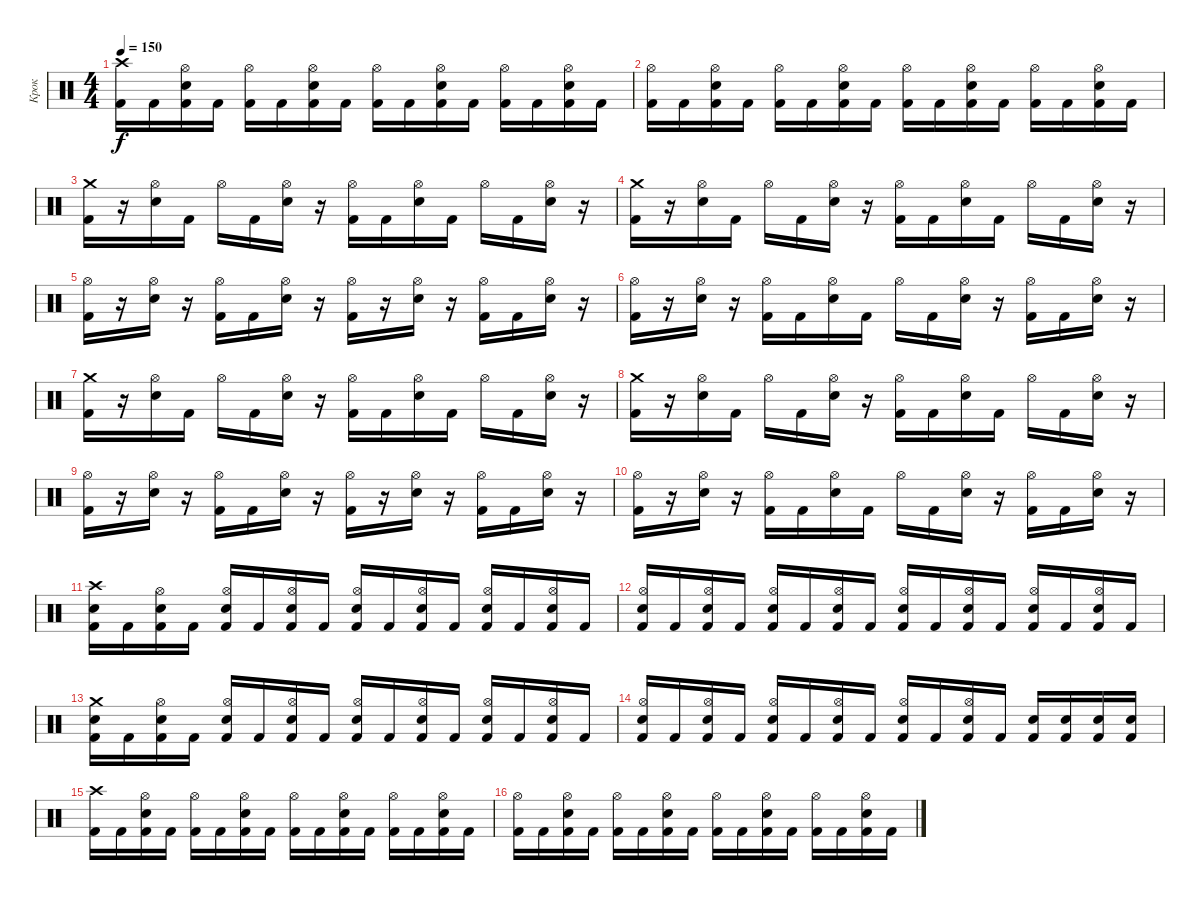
\track ("Крок" "Крок") {instrument percussion}
\staff {score}
\articulation defaults
\ts (4 4)
\tempo 150
\clef neutral
\ks c
("Crash high (hit)" "Kick (hit) 2").16{dy f} "Kick (hit) 2".16 ("Hi-Hat (open)" "Electric Snare (hit)" "Kick (hit) 2").16 "Kick (hit) 2".16 ("Hi-Hat (open)" "Kick (hit) 2").16 "Kick (hit) 2".16 ("Hi-Hat (open)" "Electric Snare (hit)" "Kick (hit) 2").16 "Kick (hit) 2".16 ("Hi-Hat (open)" "Kick (hit) 2").16 "Kick (hit) 2".16 ("Hi-Hat (open)" "Electric Snare (hit)" "Kick (hit) 2").16 "Kick (hit) 2".16 ("Hi-Hat (open)" "Kick (hit) 2").16 "Kick (hit) 2".16 ("Hi-Hat (open)" "Electric Snare (hit)" "Kick (hit) 2").16 "Kick (hit) 2".16 |
("Hi-Hat (open)" "Kick (hit) 2").16 "Kick (hit) 2".16 ("Hi-Hat (open)" "Electric Snare (hit)" "Kick (hit) 2").16 "Kick (hit) 2".16 ("Hi-Hat (open)" "Kick (hit) 2").16 "Kick (hit) 2".16 ("Hi-Hat (open)" "Electric Snare (hit)" "Kick (hit) 2").16 "Kick (hit) 2".16 ("Hi-Hat (open)" "Kick (hit) 2").16 "Kick (hit) 2".16 ("Hi-Hat (open)" "Electric Snare (hit)" "Kick (hit) 2").16 "Kick (hit) 2".16 ("Hi-Hat (open)" "Kick (hit) 2").16 "Kick (hit) 2".16 ("Hi-Hat (open)" "Electric Snare (hit)" "Kick (hit) 2").16 "Kick (hit) 2".16 |
("Crash medium (hit)" "Kick (hit) 2").16 r.16 ("Hi-Hat (open)" "Electric Snare (hit)").16 "Kick (hit) 2".16 "Hi-Hat (open)".16 "Kick (hit) 2".16 ("Hi-Hat (open)" "Electric Snare (hit)").16 r.16 ("Hi-Hat (open)" "Kick (hit) 2").16 "Kick (hit) 2".16 ("Hi-Hat (open)" "Electric Snare (hit)").16 "Kick (hit) 2".16 "Hi-Hat (open)".16 "Kick (hit) 2".16 ("Hi-Hat (open)" "Electric Snare (hit)").16 r.16 |
("Crash medium (hit)" "Kick (hit) 2").16 r.16 ("Hi-Hat (open)" "Electric Snare (hit)").16 "Kick (hit) 2".16 "Hi-Hat (open)".16 "Kick (hit) 2".16 ("Hi-Hat (open)" "Electric Snare (hit)").16 r.16 ("Hi-Hat (open)" "Kick (hit) 2").16 "Kick (hit) 2".16 ("Hi-Hat (open)" "Electric Snare (hit)").16 "Kick (hit) 2".16 "Hi-Hat (open)".16 "Kick (hit) 2".16 ("Hi-Hat (open)" "Electric Snare (hit)").16 r.16 |
("Hi-Hat (open)" "Kick (hit) 2").16 r.16 ("Hi-Hat (open)" "Electric Snare (hit)").16 r.16 ("Hi-Hat (open)" "Kick (hit) 2").16 "Kick (hit) 2".16 ("Hi-Hat (open)" "Electric Snare (hit)").16 r.16 ("Hi-Hat (open)" "Kick (hit) 2").16 r.16 ("Hi-Hat (open)" "Electric Snare (hit)").16 r.16 ("Hi-Hat (open)" "Kick (hit) 2").16 "Kick (hit) 2".16 ("Hi-Hat (open)" "Electric Snare (hit)").16 r.16 |
("Hi-Hat (open)" "Kick (hit) 2").16 r.16 ("Hi-Hat (open)" "Electric Snare (hit)").16 r.16 ("Hi-Hat (open)" "Kick (hit) 2").16 "Kick (hit) 2".16 ("Hi-Hat (open)" "Electric Snare (hit)").16 "Kick (hit) 2".16 "Hi-Hat (open)".16 "Kick (hit) 2".16 ("Hi-Hat (open)" "Electric Snare (hit)").16 r.16 ("Hi-Hat (open)" "Kick (hit) 2").16 "Kick (hit) 2".16 ("Hi-Hat (open)" "Electric Snare (hit)").16 r.16 |
("Crash medium (hit)" "Kick (hit) 2").16 r.16 ("Hi-Hat (open)" "Electric Snare (hit)").16 "Kick (hit) 2".16 "Hi-Hat (open)".16 "Kick (hit) 2".16 ("Hi-Hat (open)" "Electric Snare (hit)").16 r.16 ("Hi-Hat (open)" "Kick (hit) 2").16 "Kick (hit) 2".16 ("Hi-Hat (open)" "Electric Snare (hit)").16 "Kick (hit) 2".16 "Hi-Hat (open)".16 "Kick (hit) 2".16 ("Hi-Hat (open)" "Electric Snare (hit)").16 r.16 |
("Crash medium (hit)" "Kick (hit) 2").16 r.16 ("Hi-Hat (open)" "Electric Snare (hit)").16 "Kick (hit) 2".16 "Hi-Hat (open)".16 "Kick (hit) 2".16 ("Hi-Hat (open)" "Electric Snare (hit)").16 r.16 ("Hi-Hat (open)" "Kick (hit) 2").16 "Kick (hit) 2".16 ("Hi-Hat (open)" "Electric Snare (hit)").16 "Kick (hit) 2".16 "Hi-Hat (open)".16 "Kick (hit) 2".16 ("Hi-Hat (open)" "Electric Snare (hit)").16 r.16 |
("Hi-Hat (open)" "Kick (hit) 2").16 r.16 ("Hi-Hat (open)" "Electric Snare (hit)").16 r.16 ("Hi-Hat (open)" "Kick (hit) 2").16 "Kick (hit) 2".16 ("Hi-Hat (open)" "Electric Snare (hit)").16 r.16 ("Hi-Hat (open)" "Kick (hit) 2").16 r.16 ("Hi-Hat (open)" "Electric Snare (hit)").16 r.16 ("Hi-Hat (open)" "Kick (hit) 2").16 "Kick (hit) 2".16 ("Hi-Hat (open)" "Electric Snare (hit)").16 r.16 |
("Hi-Hat (open)" "Kick (hit) 2").16 r.16 ("Hi-Hat (open)" "Electric Snare (hit)").16 r.16 ("Hi-Hat (open)" "Kick (hit) 2").16 "Kick (hit) 2".16 ("Hi-Hat (open)" "Electric Snare (hit)").16 "Kick (hit) 2".16 "Hi-Hat (open)".16 "Kick (hit) 2".16 ("Hi-Hat (open)" "Electric Snare (hit)").16 r.16 ("Hi-Hat (open)" "Kick (hit) 2").16 "Kick (hit) 2".16 ("Hi-Hat (open)" "Electric Snare (hit)").16 r.16 |
("Electric Snare (hit)" "Crash high (hit)" "Kick (hit) 2").16 "Kick (hit) 2".16 ("Hi-Hat (open)" "Electric Snare (hit)" "Kick (hit) 2").16 "Kick (hit) 2".16 ("Hi-Hat (open)" "Electric Snare (hit)" "Kick (hit) 2").16 "Kick (hit) 2".16 ("Hi-Hat (open)" "Electric Snare (hit)" "Kick (hit) 2").16 "Kick (hit) 2".16 ("Hi-Hat (open)" "Electric Snare (hit)" "Kick (hit) 2").16 "Kick (hit) 2".16 ("Hi-Hat (open)" "Electric Snare (hit)" "Kick (hit) 2").16 "Kick (hit) 2".16 ("Hi-Hat (open)" "Electric Snare (hit)" "Kick (hit) 2").16 "Kick (hit) 2".16 ("Hi-Hat (open)" "Electric Snare (hit)" "Kick (hit) 2").16 "Kick (hit) 2".16 |
("Hi-Hat (open)" "Electric Snare (hit)" "Kick (hit) 2").16 "Kick (hit) 2".16 ("Hi-Hat (open)" "Electric Snare (hit)" "Kick (hit) 2").16 "Kick (hit) 2".16 ("Hi-Hat (open)" "Electric Snare (hit)" "Kick (hit) 2").16 "Kick (hit) 2".16 ("Hi-Hat (open)" "Electric Snare (hit)" "Kick (hit) 2").16 "Kick (hit) 2".16 ("Hi-Hat (open)" "Electric Snare (hit)" "Kick (hit) 2").16 "Kick (hit) 2".16 ("Hi-Hat (open)" "Electric Snare (hit)" "Kick (hit) 2").16 "Kick (hit) 2".16 ("Hi-Hat (open)" "Electric Snare (hit)" "Kick (hit) 2").16 "Kick (hit) 2".16 ("Hi-Hat (open)" "Electric Snare (hit)" "Kick (hit) 2").16 "Kick (hit) 2".16 |
("Crash medium (hit)" "Electric Snare (hit)" "Kick (hit) 2").16 "Kick (hit) 2".16 ("Hi-Hat (open)" "Electric Snare (hit)" "Kick (hit) 2").16 "Kick (hit) 2".16 ("Hi-Hat (open)" "Electric Snare (hit)" "Kick (hit) 2").16 "Kick (hit) 2".16 ("Hi-Hat (open)" "Electric Snare (hit)" "Kick (hit) 2").16 "Kick (hit) 2".16 ("Hi-Hat (open)" "Electric Snare (hit)" "Kick (hit) 2").16 "Kick (hit) 2".16 ("Hi-Hat (open)" "Electric Snare (hit)" "Kick (hit) 2").16 "Kick (hit) 2".16 ("Hi-Hat (open)" "Electric Snare (hit)" "Kick (hit) 2").16 "Kick (hit) 2".16 ("Hi-Hat (open)" "Electric Snare (hit)" "Kick (hit) 2").16 "Kick (hit) 2".16 |
("Hi-Hat (open)" "Electric Snare (hit)" "Kick (hit) 2").16 "Kick (hit) 2".16 ("Hi-Hat (open)" "Electric Snare (hit)" "Kick (hit) 2").16 "Kick (hit) 2".16 ("Hi-Hat (open)" "Electric Snare (hit)" "Kick (hit) 2").16 "Kick (hit) 2".16 ("Hi-Hat (open)" "Electric Snare (hit)" "Kick (hit) 2").16 "Kick (hit) 2".16 ("Hi-Hat (open)" "Electric Snare (hit)" "Kick (hit) 2").16 "Kick (hit) 2".16 ("Hi-Hat (open)" "Electric Snare (hit)" "Kick (hit) 2").16 "Kick (hit) 2".16 ("Electric Snare (hit)" "Kick (hit) 2").16 ("Electric Snare (hit)" "Kick (hit) 2").16 ("Electric Snare (hit)" "Kick (hit) 2").16 ("Electric Snare (hit)" "Kick (hit) 2").16 |
("Crash high (hit)" "Kick (hit) 2").16 "Kick (hit) 2".16 ("Hi-Hat (open)" "Electric Snare (hit)" "Kick (hit) 2").16 "Kick (hit) 2".16 ("Hi-Hat (open)" "Kick (hit) 2").16 "Kick (hit) 2".16 ("Hi-Hat (open)" "Electric Snare (hit)" "Kick (hit) 2").16 "Kick (hit) 2".16 ("Hi-Hat (open)" "Kick (hit) 2").16 "Kick (hit) 2".16 ("Hi-Hat (open)" "Electric Snare (hit)" "Kick (hit) 2").16 "Kick (hit) 2".16 ("Hi-Hat (open)" "Kick (hit) 2").16 "Kick (hit) 2".16 ("Hi-Hat (open)" "Electric Snare (hit)" "Kick (hit) 2").16 "Kick (hit) 2".16 |
("Hi-Hat (open)" "Kick (hit) 2").16 "Kick (hit) 2".16 ("Hi-Hat (open)" "Electric Snare (hit)" "Kick (hit) 2").16 "Kick (hit) 2".16 ("Hi-Hat (open)" "Kick (hit) 2").16 "Kick (hit) 2".16 ("Hi-Hat (open)" "Electric Snare (hit)" "Kick (hit) 2").16 "Kick (hit) 2".16 ("Hi-Hat (open)" "Kick (hit) 2").16 "Kick (hit) 2".16 ("Hi-Hat (open)" "Electric Snare (hit)" "Kick (hit) 2").16 "Kick (hit) 2".16 ("Hi-Hat (open)" "Kick (hit) 2").16 "Kick (hit) 2".16 ("Hi-Hat (open)" "Electric Snare (hit)" "Kick (hit) 2").16 "Kick (hit) 2".16
